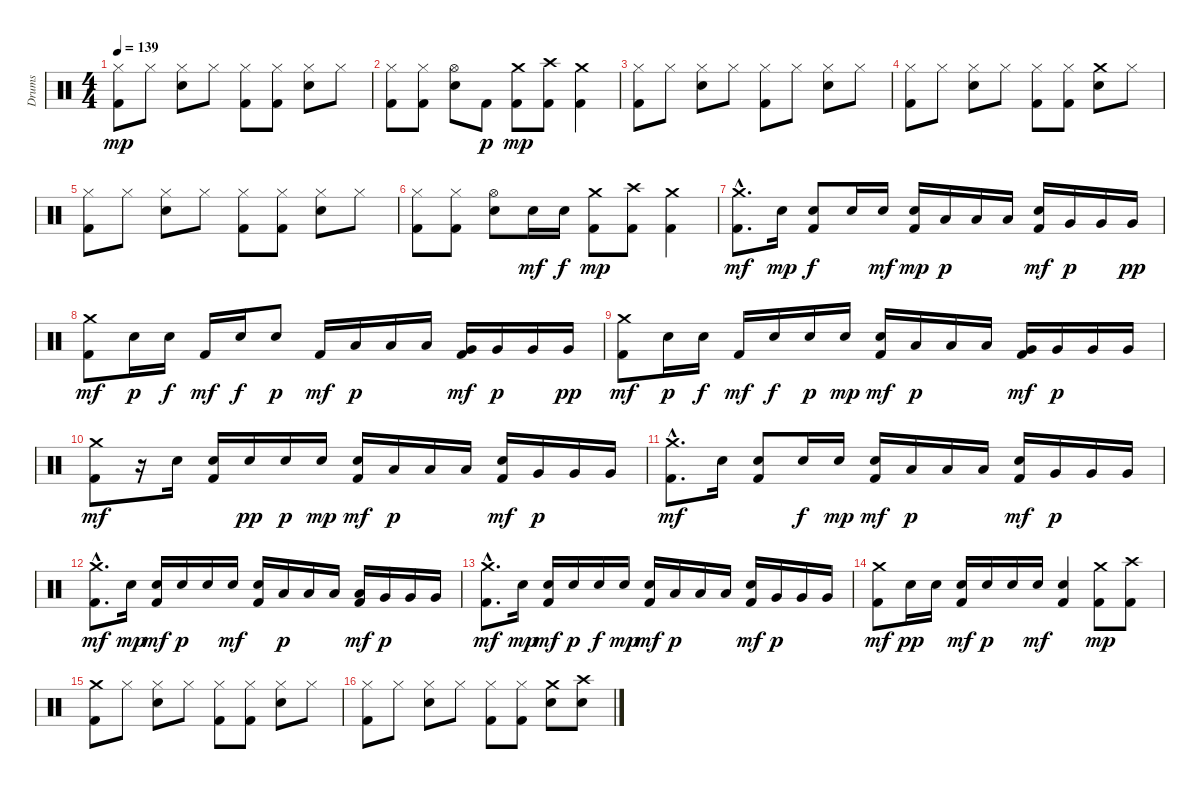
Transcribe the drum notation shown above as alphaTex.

\track ("Drums" "Drums") {instrument percussion}
\staff {score}
\articulation defaults
\ts (4 4)
\tempo 139
\clef neutral
\ks c
("Kick (hit) 2" "Hi-Hat (closed)").8{dy mp} "Hi-Hat (closed)".8 ("Hi-Hat (closed)" "Electric Snare (hit)").8 "Hi-Hat (closed)".8 ("Kick (hit) 2" "Hi-Hat (closed)").8 ("Kick (hit) 2" "Hi-Hat (closed)").8 ("Hi-Hat (closed)" "Electric Snare (hit)").8 "Hi-Hat (closed)".8 |
("Kick (hit) 2" "Hi-Hat (closed)").8 ("Kick (hit) 2" "Hi-Hat (closed)").8 ("Hi-Hat (open)" "Electric Snare (hit)").8 "Kick (hit) 2".8{dy p} ("Kick (hit) 2" "Crash medium (hit)").8{dy mp} ("Kick (hit) 2" "Crash high (hit)").8 ("Kick (hit) 2" "Crash medium (hit)").4 |
("Kick (hit) 2" "Hi-Hat (closed)").8 "Hi-Hat (closed)".8 ("Hi-Hat (closed)" "Electric Snare (hit)").8 "Hi-Hat (closed)".8 ("Kick (hit) 2" "Hi-Hat (closed)").8 "Hi-Hat (closed)".8 ("Hi-Hat (closed)" "Electric Snare (hit)").8 "Hi-Hat (closed)".8 |
("Kick (hit) 2" "Hi-Hat (closed)").8 "Hi-Hat (closed)".8 ("Hi-Hat (closed)" "Electric Snare (hit)").8 "Hi-Hat (closed)".8 ("Kick (hit) 2" "Hi-Hat (closed)").8 ("Kick (hit) 2" "Hi-Hat (closed)").8 ("Crash medium (hit)" "Electric Snare (hit)").8 "Hi-Hat (closed)".8 |
("Kick (hit) 2" "Hi-Hat (closed)").8 "Hi-Hat (closed)".8 ("Hi-Hat (closed)" "Electric Snare (hit)").8 "Hi-Hat (closed)".8 ("Kick (hit) 2" "Hi-Hat (closed)").8 ("Kick (hit) 2" "Hi-Hat (closed)").8 ("Hi-Hat (closed)" "Electric Snare (hit)").8 "Hi-Hat (closed)".8 |
("Kick (hit) 2" "Hi-Hat (closed)").8 ("Kick (hit) 2" "Hi-Hat (closed)").8 ("Hi-Hat (open)" "Electric Snare (hit)").8 "Electric Snare (hit)".16{dy mf} "Electric Snare (hit)".16{dy f} ("Kick (hit) 2" "Crash medium (hit)").8{dy mp} ("Kick (hit) 2" "Crash high (hit)").8 ("Kick (hit) 2" "Crash medium (hit)").4 |
("Kick (hit) 2"{hac} "Crash medium (hit)"{hac}).8{d dy mf} "Electric Snare (hit)".16{dy mp} ("Electric Snare (hit)" "Kick (hit) 2").8{dy f} "Electric Snare (hit)".16 "Electric Snare (hit)".16{dy mf} ("Electric Snare (hit)" "Kick (hit) 2").16{dy mp} "Low Tom (hit)".16{dy p} "Low Tom (hit)".16 "Low Tom (hit)".16 ("Electric Snare (hit)" "Kick (hit) 2").16{dy mf} "Very Low Tom (hit)".16{dy p} "Very Low Tom (hit)".16 "Very Low Tom (hit)".16{dy pp} |
("Kick (hit) 2" "Crash medium (hit)").8{dy mf} "Electric Snare (hit)".16{dy p} "Electric Snare (hit)".16{dy f} "Kick (hit) 2".16{dy mf} "Electric Snare (hit)".16{dy f} "Electric Snare (hit)".8{dy p} "Kick (hit) 2".16{dy mf} "Low Tom (hit)".16{dy p} "Low Tom (hit)".16 "Low Tom (hit)".16 ("Very Low Tom (hit)" "Kick (hit) 2").16{dy mf} "Very Low Tom (hit)".16{dy p} "Very Low Tom (hit)".16 "Very Low Tom (hit)".16{dy pp} |
("Kick (hit) 2" "Crash medium (hit)").8{dy mf} "Electric Snare (hit)".16{dy p} "Electric Snare (hit)".16{dy f} "Kick (hit) 2".16{dy mf} "Electric Snare (hit)".16{dy f} "Electric Snare (hit)".16{dy p} "Electric Snare (hit)".16{dy mp} ("Electric Snare (hit)" "Kick (hit) 2").16{dy mf} "Low Tom (hit)".16{dy p} "Low Tom (hit)".16 "Low Tom (hit)".16 ("Very Low Tom (hit)" "Kick (hit) 2").16{dy mf} "Very Low Tom (hit)".16{dy p} "Very Low Tom (hit)".16 "Very Low Tom (hit)".16 |
("Kick (hit) 2" "Crash medium (hit)").8{dy mf} r.16 "Electric Snare (hit)".16 ("Electric Snare (hit)" "Kick (hit) 2").16 "Electric Snare (hit)".16{dy pp} "Electric Snare (hit)".16{dy p} "Electric Snare (hit)".16{dy mp} ("Electric Snare (hit)" "Kick (hit) 2").16{dy mf} "Low Tom (hit)".16{dy p} "Low Tom (hit)".16 "Low Tom (hit)".16 ("Electric Snare (hit)" "Kick (hit) 2").16{dy mf} "Very Low Tom (hit)".16{dy p} "Very Low Tom (hit)".16 "Very Low Tom (hit)".16 |
("Kick (hit) 2" "Crash medium (hit)"{hac}).8{d dy mf} "Electric Snare (hit)".16 ("Electric Snare (hit)" "Kick (hit) 2").8 "Electric Snare (hit)".16{dy f} "Electric Snare (hit)".16{dy mp} ("Electric Snare (hit)" "Kick (hit) 2").16{dy mf} "Low Tom (hit)".16{dy p} "Low Tom (hit)".16 "Low Tom (hit)".16 ("Electric Snare (hit)" "Kick (hit) 2").16{dy mf} "Very Low Tom (hit)".16{dy p} "Very Low Tom (hit)".16 "Very Low Tom (hit)".16 |
("Kick (hit) 2"{hac} "Crash medium (hit)"{hac}).8{d dy mf} "Electric Snare (hit)".16{dy mp} ("Electric Snare (hit)" "Kick (hit) 2").16{dy mf} "Electric Snare (hit)".16{dy p} "Electric Snare (hit)".16 "Electric Snare (hit)".16{dy mf} ("Electric Snare (hit)" "Kick (hit) 2").16 "Low Tom (hit)".16{dy p} "Low Tom (hit)".16 "Low Tom (hit)".16 ("Low Tom (hit)" "Kick (hit) 2").16{dy mf} "Very Low Tom (hit)".16{dy p} "Very Low Tom (hit)".16 "Very Low Tom (hit)".16 |
("Kick (hit) 2"{hac} "Crash medium (hit)"{hac}).8{d dy mf} "Electric Snare (hit)".16{dy mp} ("Electric Snare (hit)" "Kick (hit) 2").16{dy mf} "Electric Snare (hit)".16{dy p} "Electric Snare (hit)".16{dy f} "Electric Snare (hit)".16{dy mp} ("Electric Snare (hit)" "Kick (hit) 2").16{dy mf} "Low Tom (hit)".16{dy p} "Low Tom (hit)".16 "Low Tom (hit)".16 ("Electric Snare (hit)" "Kick (hit) 2").16{dy mf} "Very Low Tom (hit)".16{dy p} "Very Low Tom (hit)".16 "Very Low Tom (hit)".16 |
("Kick (hit) 2" "Crash medium (hit)").8{dy mf} "Electric Snare (hit)".16{dy pp} "Electric Snare (hit)".16 ("Electric Snare (hit)" "Kick (hit) 2").16{dy mf} "Electric Snare (hit)".16{dy p} "Electric Snare (hit)".16 "Electric Snare (hit)".16{dy mf} ("Electric Snare (hit)" "Kick (hit) 2").4 ("Kick (hit) 2" "Crash medium (hit)").8{dy mp} ("Kick (hit) 2" "Crash high (hit)").8 |
("Kick (hit) 2" "Crash medium (hit)").8 "Hi-Hat (closed)".8 ("Hi-Hat (closed)" "Electric Snare (hit)").8 "Hi-Hat (closed)".8 ("Kick (hit) 2" "Hi-Hat (closed)").8 ("Kick (hit) 2" "Hi-Hat (closed)").8 ("Hi-Hat (closed)" "Electric Snare (hit)").8 "Hi-Hat (closed)".8 |
("Kick (hit) 2" "Hi-Hat (closed)").8 "Hi-Hat (closed)".8 ("Hi-Hat (closed)" "Electric Snare (hit)").8 "Hi-Hat (closed)".8 ("Kick (hit) 2" "Hi-Hat (closed)").8 ("Kick (hit) 2" "Hi-Hat (closed)").8 ("Crash medium (hit)" "Electric Snare (hit)").8 ("Crash high (hit)" "Electric Snare (hit)").8
